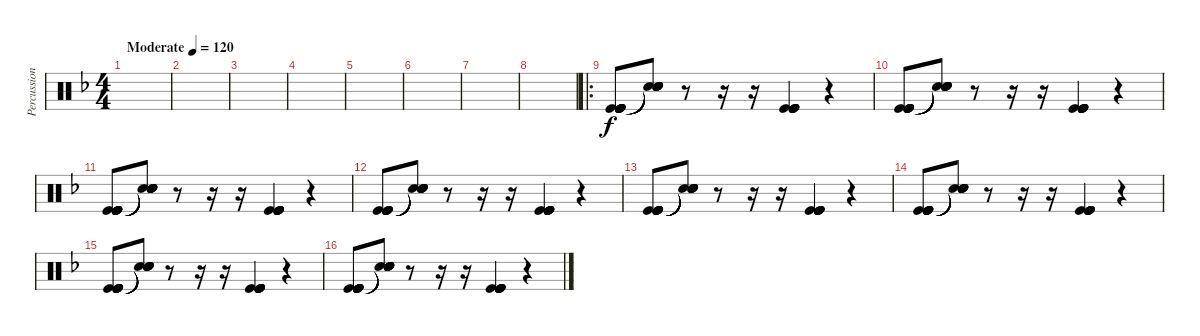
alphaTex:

\track ("Percussion" "Percussion") {instrument percussion}
\staff {score}
\articulation defaults
\ts (4 4)
\tempo (120 "Moderate")
\clef neutral
\ks f
|
|
|
|
|
|
|
|
\ro
("Kick (hit)" "Kick (hit)" "Kick (hit)" "Kick (hit)" "Kick (hit)" "Kick (hit)").8 ("Snare (hit)"{t} "Snare (hit)"{t} "Snare (hit)"{t} "Snare (hit)"{t} "Snare (hit)"{t} "Snare (hit)"{t}).8 r.8 r.16 r.16 ("Kick (hit)" "Kick (hit)" "Kick (hit)" "Kick (hit)" "Kick (hit)" "Kick (hit)").4 r.4 |
("Kick (hit)" "Kick (hit)" "Kick (hit)" "Kick (hit)" "Kick (hit)" "Kick (hit)").8 ("Snare (hit)"{t} "Snare (hit)"{t} "Snare (hit)"{t} "Snare (hit)"{t} "Snare (hit)"{t} "Snare (hit)"{t}).8 r.8 r.16 r.16 ("Kick (hit)" "Kick (hit)" "Kick (hit)" "Kick (hit)" "Kick (hit)" "Kick (hit)").4 r.4 |
("Kick (hit)" "Kick (hit)" "Kick (hit)" "Kick (hit)" "Kick (hit)" "Kick (hit)").8 ("Snare (hit)"{t} "Snare (hit)"{t} "Snare (hit)"{t} "Snare (hit)"{t} "Snare (hit)"{t} "Snare (hit)"{t}).8 r.8 r.16 r.16 ("Kick (hit)" "Kick (hit)" "Kick (hit)" "Kick (hit)" "Kick (hit)" "Kick (hit)").4 r.4 |
("Kick (hit)" "Kick (hit)" "Kick (hit)" "Kick (hit)" "Kick (hit)" "Kick (hit)").8 ("Snare (hit)"{t} "Snare (hit)"{t} "Snare (hit)"{t} "Snare (hit)"{t} "Snare (hit)"{t} "Snare (hit)"{t}).8 r.8 r.16 r.16 ("Kick (hit)" "Kick (hit)" "Kick (hit)" "Kick (hit)" "Kick (hit)" "Kick (hit)").4 r.4 |
("Kick (hit)" "Kick (hit)" "Kick (hit)" "Kick (hit)" "Kick (hit)" "Kick (hit)").8 ("Snare (hit)"{t} "Snare (hit)"{t} "Snare (hit)"{t} "Snare (hit)"{t} "Snare (hit)"{t} "Snare (hit)"{t}).8 r.8 r.16 r.16 ("Kick (hit)" "Kick (hit)" "Kick (hit)" "Kick (hit)" "Kick (hit)" "Kick (hit)").4 r.4 |
("Kick (hit)" "Kick (hit)" "Kick (hit)" "Kick (hit)" "Kick (hit)" "Kick (hit)").8 ("Snare (hit)"{t} "Snare (hit)"{t} "Snare (hit)"{t} "Snare (hit)"{t} "Snare (hit)"{t} "Snare (hit)"{t}).8 r.8 r.16 r.16 ("Kick (hit)" "Kick (hit)" "Kick (hit)" "Kick (hit)" "Kick (hit)" "Kick (hit)").4 r.4 |
("Kick (hit)" "Kick (hit)" "Kick (hit)" "Kick (hit)" "Kick (hit)" "Kick (hit)").8 ("Snare (hit)"{t} "Snare (hit)"{t} "Snare (hit)"{t} "Snare (hit)"{t} "Snare (hit)"{t} "Snare (hit)"{t}).8 r.8 r.16 r.16 ("Kick (hit)" "Kick (hit)" "Kick (hit)" "Kick (hit)" "Kick (hit)" "Kick (hit)").4 r.4 |
("Kick (hit)" "Kick (hit)" "Kick (hit)" "Kick (hit)" "Kick (hit)" "Kick (hit)").8 ("Snare (hit)"{t} "Snare (hit)"{t} "Snare (hit)"{t} "Snare (hit)"{t} "Snare (hit)"{t} "Snare (hit)"{t}).8 r.8 r.16 r.16 ("Kick (hit)" "Kick (hit)" "Kick (hit)" "Kick (hit)" "Kick (hit)" "Kick (hit)").4 r.4
